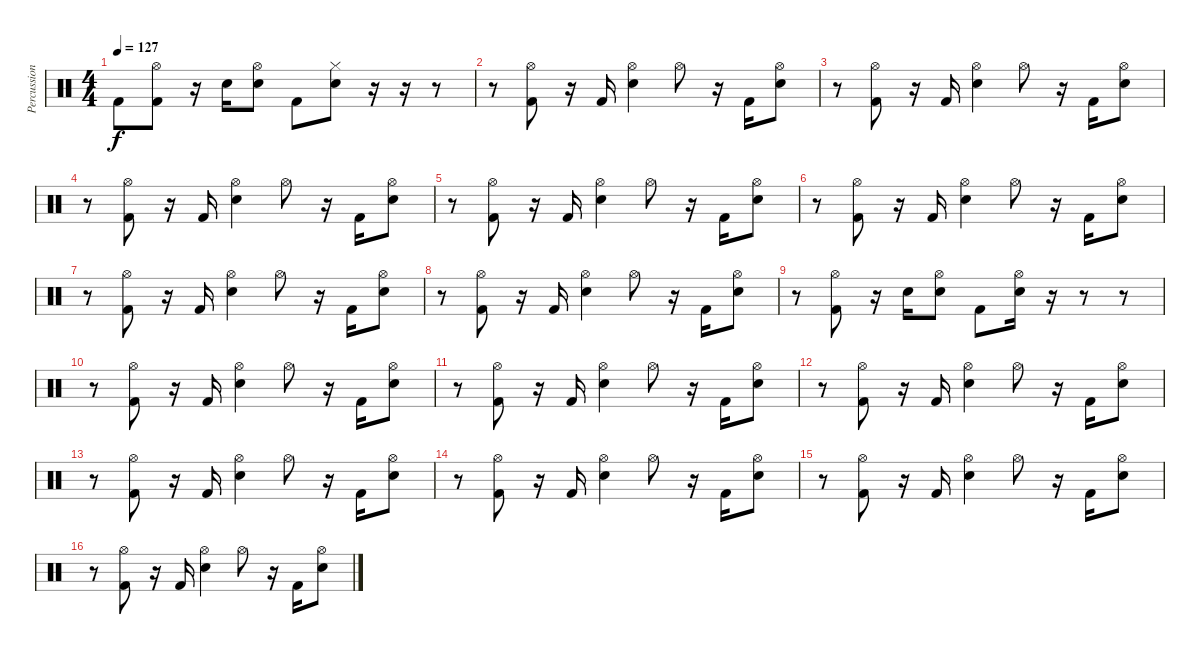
\track ("Percussion" "Percussion") {instrument percussion}
\staff {score}
\articulation defaults
\ts (4 4)
\tempo 127
\clef neutral
\ks c "Kick (hit) 2".8{dy f}
("Hi-Hat (open)" "Kick (hit) 2").8 r.16 "Electric Snare (hit)".16 ("Hi-Hat (open)" "Electric Snare (hit)").8 "Kick (hit) 2".8 ("Hi-Hat (closed)" "Electric Snare (hit)").8 r.16 r.16 r.8 |
r.8 ("Hi-Hat (open)" "Kick (hit) 2").8 r.16 "Kick (hit) 2".16 ("Hi-Hat (open)" "Electric Snare (hit)").4 "Hi-Hat (open)".8 r.16 "Kick (hit) 2".16 ("Hi-Hat (open)" "Electric Snare (hit)").8 |
r.8 ("Hi-Hat (open)" "Kick (hit) 2").8 r.16 "Kick (hit) 2".16 ("Hi-Hat (open)" "Electric Snare (hit)").4 "Hi-Hat (open)".8 r.16 "Kick (hit) 2".16 ("Hi-Hat (open)" "Electric Snare (hit)").8 |
r.8 ("Hi-Hat (open)" "Kick (hit) 2").8 r.16 "Kick (hit) 2".16 ("Hi-Hat (open)" "Electric Snare (hit)").4 "Hi-Hat (open)".8 r.16 "Kick (hit) 2".16 ("Hi-Hat (open)" "Electric Snare (hit)").8 |
r.8 ("Hi-Hat (open)" "Kick (hit) 2").8 r.16 "Kick (hit) 2".16 ("Hi-Hat (open)" "Electric Snare (hit)").4 "Hi-Hat (open)".8 r.16 "Kick (hit) 2".16 ("Hi-Hat (open)" "Electric Snare (hit)").8 |
r.8 ("Hi-Hat (open)" "Kick (hit) 2").8 r.16 "Kick (hit) 2".16 ("Hi-Hat (open)" "Electric Snare (hit)").4 "Hi-Hat (open)".8 r.16 "Kick (hit) 2".16 ("Hi-Hat (open)" "Electric Snare (hit)").8 |
r.8 ("Hi-Hat (open)" "Kick (hit) 2").8 r.16 "Kick (hit) 2".16 ("Hi-Hat (open)" "Electric Snare (hit)").4 "Hi-Hat (open)".8 r.16 "Kick (hit) 2".16 ("Hi-Hat (open)" "Electric Snare (hit)").8 |
r.8 ("Hi-Hat (open)" "Kick (hit) 2").8 r.16 "Kick (hit) 2".16 ("Hi-Hat (open)" "Electric Snare (hit)").4 "Hi-Hat (open)".8 r.16 "Kick (hit) 2".16 ("Hi-Hat (open)" "Electric Snare (hit)").8 |
r.8 ("Hi-Hat (open)" "Kick (hit) 2").8 r.16 "Electric Snare (hit)".16 ("Hi-Hat (open)" "Electric Snare (hit)").8 "Kick (hit) 2".8 ("Hi-Hat (open)" "Electric Snare (hit)").16 r.16 r.8 r.8 |
r.8 ("Hi-Hat (open)" "Kick (hit) 2").8 r.16 "Kick (hit) 2".16 ("Hi-Hat (open)" "Electric Snare (hit)").4 "Hi-Hat (open)".8 r.16 "Kick (hit) 2".16 ("Hi-Hat (open)" "Electric Snare (hit)").8 |
r.8 ("Hi-Hat (open)" "Kick (hit) 2").8 r.16 "Kick (hit) 2".16 ("Hi-Hat (open)" "Electric Snare (hit)").4 "Hi-Hat (open)".8 r.16 "Kick (hit) 2".16 ("Hi-Hat (open)" "Electric Snare (hit)").8 |
r.8 ("Hi-Hat (open)" "Kick (hit) 2").8 r.16 "Kick (hit) 2".16 ("Hi-Hat (open)" "Electric Snare (hit)").4 "Hi-Hat (open)".8 r.16 "Kick (hit) 2".16 ("Hi-Hat (open)" "Electric Snare (hit)").8 |
r.8 ("Hi-Hat (open)" "Kick (hit) 2").8 r.16 "Kick (hit) 2".16 ("Hi-Hat (open)" "Electric Snare (hit)").4 "Hi-Hat (open)".8 r.16 "Kick (hit) 2".16 ("Hi-Hat (open)" "Electric Snare (hit)").8 |
r.8 ("Hi-Hat (open)" "Kick (hit) 2").8 r.16 "Kick (hit) 2".16 ("Hi-Hat (open)" "Electric Snare (hit)").4 "Hi-Hat (open)".8 r.16 "Kick (hit) 2".16 ("Hi-Hat (open)" "Electric Snare (hit)").8 |
r.8 ("Hi-Hat (open)" "Kick (hit) 2").8 r.16 "Kick (hit) 2".16 ("Hi-Hat (open)" "Electric Snare (hit)").4 "Hi-Hat (open)".8 r.16 "Kick (hit) 2".16 ("Hi-Hat (open)" "Electric Snare (hit)").8 |
r.8 ("Hi-Hat (open)" "Kick (hit) 2").8 r.16 "Kick (hit) 2".16 ("Hi-Hat (open)" "Electric Snare (hit)").4 "Hi-Hat (open)".8 r.16 "Kick (hit) 2".16 ("Hi-Hat (open)" "Electric Snare (hit)").8
